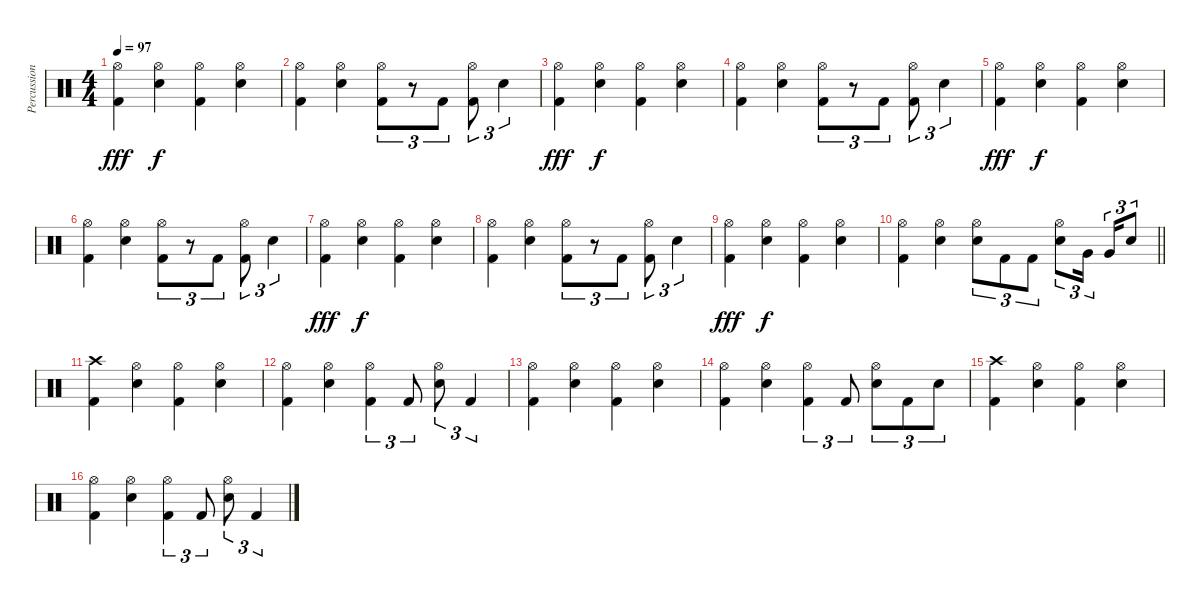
\track ("Percussion" "Percussion") {instrument percussion}
\staff {score}
\articulation defaults
\ts (4 4)
\tempo 97
\clef neutral
\ks c
("Hi-Hat (open)" "Kick (hit) 2").4{dy fff} ("Hi-Hat (open)" "Snare (hit) 2").4{dy f} ("Hi-Hat (open)" "Kick (hit) 2").4 ("Hi-Hat (open)" "Snare (hit) 2").4 |
("Hi-Hat (open)" "Kick (hit) 2").4 ("Hi-Hat (open)" "Snare (hit) 2").4 ("Hi-Hat (open)" "Kick (hit) 2").8{tu (3 2)} r.8{tu (3 2)} "Kick (hit) 2".8{tu (3 2)} ("Hi-Hat (open)" "Kick (hit) 2").8{tu (3 2)} "Snare (hit) 2".4{tu (3 2)} |
("Hi-Hat (open)" "Kick (hit) 2").4{dy fff} ("Hi-Hat (open)" "Snare (hit) 2").4{dy f} ("Hi-Hat (open)" "Kick (hit) 2").4 ("Hi-Hat (open)" "Snare (hit) 2").4 |
("Hi-Hat (open)" "Kick (hit) 2").4 ("Hi-Hat (open)" "Snare (hit) 2").4 ("Hi-Hat (open)" "Kick (hit) 2").8{tu (3 2)} r.8{tu (3 2)} "Kick (hit) 2".8{tu (3 2)} ("Hi-Hat (open)" "Kick (hit) 2").8{tu (3 2)} "Snare (hit) 2".4{tu (3 2)} |
("Hi-Hat (open)" "Kick (hit) 2").4{dy fff} ("Hi-Hat (open)" "Snare (hit) 2").4{dy f} ("Hi-Hat (open)" "Kick (hit) 2").4 ("Hi-Hat (open)" "Snare (hit) 2").4 |
("Hi-Hat (open)" "Kick (hit) 2").4 ("Hi-Hat (open)" "Snare (hit) 2").4 ("Hi-Hat (open)" "Kick (hit) 2").8{tu (3 2)} r.8{tu (3 2)} "Kick (hit) 2".8{tu (3 2)} ("Hi-Hat (open)" "Kick (hit) 2").8{tu (3 2)} "Snare (hit) 2".4{tu (3 2)} |
("Hi-Hat (open)" "Kick (hit) 2").4{dy fff} ("Hi-Hat (open)" "Snare (hit) 2").4{dy f} ("Hi-Hat (open)" "Kick (hit) 2").4 ("Hi-Hat (open)" "Snare (hit) 2").4 |
("Hi-Hat (open)" "Kick (hit) 2").4 ("Hi-Hat (open)" "Snare (hit) 2").4 ("Hi-Hat (open)" "Kick (hit) 2").8{tu (3 2)} r.8{tu (3 2)} "Kick (hit) 2".8{tu (3 2)} ("Hi-Hat (open)" "Kick (hit) 2").8{tu (3 2)} "Snare (hit) 2".4{tu (3 2)} |
("Hi-Hat (open)" "Kick (hit) 2").4{dy fff} ("Hi-Hat (open)" "Snare (hit) 2").4{dy f} ("Hi-Hat (open)" "Kick (hit) 2").4 ("Hi-Hat (open)" "Snare (hit) 2").4 |
\barLineRight lightlight
("Hi-Hat (open)" "Kick (hit) 2").4 ("Hi-Hat (open)" "Snare (hit) 2").4 ("Hi-Hat (open)" "Snare (hit) 2").8{tu (3 2)} "Kick (hit) 2".8{tu (3 2)} "Kick (hit) 2".8{tu (3 2)} ("Hi-Hat (open)" "Snare (hit) 2").8{tu (3 2)} "Very Low Tom (hit)".16{tu (3 2)} "Very Low Tom (hit)".16{tu (3 2)} "Snare (hit) 2".8{tu (3 2)} |
("Crash high (hit)" "Kick (hit) 2").4 ("Hi-Hat (open)" "Snare (hit) 2").4 ("Hi-Hat (open)" "Kick (hit) 2").4 ("Hi-Hat (open)" "Snare (hit) 2").4 |
("Hi-Hat (open)" "Kick (hit) 2").4 ("Hi-Hat (open)" "Snare (hit) 2").4 ("Hi-Hat (open)" "Kick (hit) 2").4{tu (3 2)} "Kick (hit) 2".8{tu (3 2)} ("Hi-Hat (open)" "Snare (hit) 2").8{tu (3 2)} "Kick (hit) 2".4{tu (3 2)} |
("Hi-Hat (open)" "Kick (hit) 2").4 ("Hi-Hat (open)" "Snare (hit) 2").4 ("Hi-Hat (open)" "Kick (hit) 2").4 ("Hi-Hat (open)" "Snare (hit) 2").4 |
("Hi-Hat (open)" "Kick (hit) 2").4 ("Hi-Hat (open)" "Snare (hit) 2").4 ("Hi-Hat (open)" "Kick (hit) 2").4{tu (3 2)} "Kick (hit) 2".8{tu (3 2)} ("Hi-Hat (open)" "Snare (hit) 2").8{tu (3 2)} "Kick (hit) 2".8{tu (3 2)} "Snare (hit) 2".8{tu (3 2)} |
("Crash high (hit)" "Kick (hit) 2").4 ("Hi-Hat (open)" "Snare (hit) 2").4 ("Hi-Hat (open)" "Kick (hit) 2").4 ("Hi-Hat (open)" "Snare (hit) 2").4 |
("Hi-Hat (open)" "Kick (hit) 2").4 ("Hi-Hat (open)" "Snare (hit) 2").4 ("Hi-Hat (open)" "Kick (hit) 2").4{tu (3 2)} "Kick (hit) 2".8{tu (3 2)} ("Hi-Hat (open)" "Snare (hit) 2").8{tu (3 2)} "Kick (hit) 2".4{tu (3 2)}
